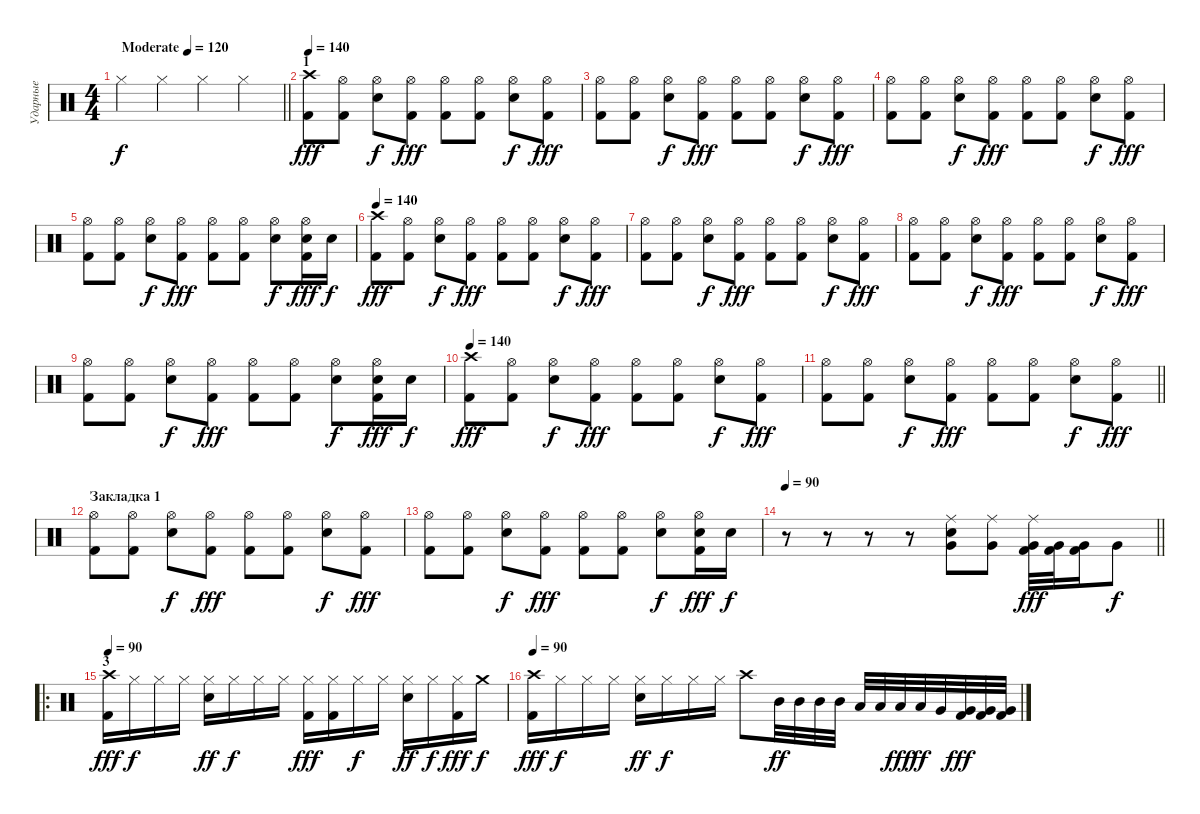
\track ("Ударные" "Ударные") {instrument percussion}
\staff {score}
\articulation defaults
\ts (4 4)
\tempo (120 "Moderate")
\clef neutral
\barLineRight lightlight
\ks c "Hi-Hat (closed)".4{dy f} "Hi-Hat (closed)".4 "Hi-Hat (closed)".4 "Hi-Hat (closed)".4
|
\section ("" "1")
\tempo 140
("Crash high (hit)" "Kick (hit) 2").8{dy fff} ("Hi-Hat (open)" "Kick (hit) 2").8 ("Hi-Hat (open)" "Snare (hit) 2").8{dy f} ("Hi-Hat (open)" "Kick (hit) 2").8{dy fff} ("Hi-Hat (open)" "Kick (hit) 2").8 ("Hi-Hat (open)" "Kick (hit) 2").8 ("Hi-Hat (open)" "Snare (hit) 2").8{dy f} ("Hi-Hat (open)" "Kick (hit) 2").8{dy fff} |
("Hi-Hat (open)" "Kick (hit) 2").8 ("Hi-Hat (open)" "Kick (hit) 2").8 ("Hi-Hat (open)" "Snare (hit) 2").8{dy f} ("Hi-Hat (open)" "Kick (hit) 2").8{dy fff} ("Hi-Hat (open)" "Kick (hit) 2").8 ("Hi-Hat (open)" "Kick (hit) 2").8 ("Hi-Hat (open)" "Snare (hit) 2").8{dy f} ("Hi-Hat (open)" "Kick (hit) 2").8{dy fff} |
("Hi-Hat (open)" "Kick (hit) 2").8 ("Hi-Hat (open)" "Kick (hit) 2").8 ("Hi-Hat (open)" "Snare (hit) 2").8{dy f} ("Hi-Hat (open)" "Kick (hit) 2").8{dy fff} ("Hi-Hat (open)" "Kick (hit) 2").8 ("Hi-Hat (open)" "Kick (hit) 2").8 ("Hi-Hat (open)" "Snare (hit) 2").8{dy f} ("Hi-Hat (open)" "Kick (hit) 2").8{dy fff} |
("Hi-Hat (open)" "Kick (hit) 2").8 ("Hi-Hat (open)" "Kick (hit) 2").8 ("Hi-Hat (open)" "Snare (hit) 2").8{dy f} ("Hi-Hat (open)" "Kick (hit) 2").8{dy fff} ("Hi-Hat (open)" "Kick (hit) 2").8 ("Hi-Hat (open)" "Kick (hit) 2").8 ("Hi-Hat (open)" "Snare (hit) 2").8{dy f} ("Hi-Hat (open)" "Snare (hit) 2" "Kick (hit) 2").16{dy fff} "Snare (hit) 2".16{dy f} |
\tempo 140
("Crash high (hit)" "Kick (hit) 2").8{dy fff} ("Hi-Hat (open)" "Kick (hit) 2").8 ("Hi-Hat (open)" "Snare (hit) 2").8{dy f} ("Hi-Hat (open)" "Kick (hit) 2").8{dy fff} ("Hi-Hat (open)" "Kick (hit) 2").8 ("Hi-Hat (open)" "Kick (hit) 2").8 ("Hi-Hat (open)" "Snare (hit) 2").8{dy f} ("Hi-Hat (open)" "Kick (hit) 2").8{dy fff} |
("Hi-Hat (open)" "Kick (hit) 2").8 ("Hi-Hat (open)" "Kick (hit) 2").8 ("Hi-Hat (open)" "Snare (hit) 2").8{dy f} ("Hi-Hat (open)" "Kick (hit) 2").8{dy fff} ("Hi-Hat (open)" "Kick (hit) 2").8 ("Hi-Hat (open)" "Kick (hit) 2").8 ("Hi-Hat (open)" "Snare (hit) 2").8{dy f} ("Hi-Hat (open)" "Kick (hit) 2").8{dy fff} |
("Hi-Hat (open)" "Kick (hit) 2").8 ("Hi-Hat (open)" "Kick (hit) 2").8 ("Hi-Hat (open)" "Snare (hit) 2").8{dy f} ("Hi-Hat (open)" "Kick (hit) 2").8{dy fff} ("Hi-Hat (open)" "Kick (hit) 2").8 ("Hi-Hat (open)" "Kick (hit) 2").8 ("Hi-Hat (open)" "Snare (hit) 2").8{dy f} ("Hi-Hat (open)" "Kick (hit) 2").8{dy fff} |
("Hi-Hat (open)" "Kick (hit) 2").8 ("Hi-Hat (open)" "Kick (hit) 2").8 ("Hi-Hat (open)" "Snare (hit) 2").8{dy f} ("Hi-Hat (open)" "Kick (hit) 2").8{dy fff} ("Hi-Hat (open)" "Kick (hit) 2").8 ("Hi-Hat (open)" "Kick (hit) 2").8 ("Hi-Hat (open)" "Snare (hit) 2").8{dy f} ("Hi-Hat (open)" "Snare (hit) 2" "Kick (hit) 2").16{dy fff} "Snare (hit) 2".16{dy f} |
\tempo 140
("Crash high (hit)" "Kick (hit) 2").8{dy fff} ("Hi-Hat (open)" "Kick (hit) 2").8 ("Hi-Hat (open)" "Snare (hit) 2").8{dy f} ("Hi-Hat (open)" "Kick (hit) 2").8{dy fff} ("Hi-Hat (open)" "Kick (hit) 2").8 ("Hi-Hat (open)" "Kick (hit) 2").8 ("Hi-Hat (open)" "Snare (hit) 2").8{dy f} ("Hi-Hat (open)" "Kick (hit) 2").8{dy fff} |
\barLineRight lightlight
("Hi-Hat (open)" "Kick (hit) 2").8 ("Hi-Hat (open)" "Kick (hit) 2").8 ("Hi-Hat (open)" "Snare (hit) 2").8{dy f} ("Hi-Hat (open)" "Kick (hit) 2").8{dy fff} ("Hi-Hat (open)" "Kick (hit) 2").8 ("Hi-Hat (open)" "Kick (hit) 2").8 ("Hi-Hat (open)" "Snare (hit) 2").8{dy f} ("Hi-Hat (open)" "Kick (hit) 2").8{dy fff} |
\section ("" "Закладка 1")
("Hi-Hat (open)" "Kick (hit) 2").8 ("Hi-Hat (open)" "Kick (hit) 2").8 ("Hi-Hat (open)" "Snare (hit) 2").8{dy f} ("Hi-Hat (open)" "Kick (hit) 2").8{dy fff} ("Hi-Hat (open)" "Kick (hit) 2").8 ("Hi-Hat (open)" "Kick (hit) 2").8 ("Hi-Hat (open)" "Snare (hit) 2").8{dy f} ("Hi-Hat (open)" "Kick (hit) 2").8{dy fff} |
("Hi-Hat (open)" "Kick (hit) 2").8 ("Hi-Hat (open)" "Kick (hit) 2").8 ("Hi-Hat (open)" "Snare (hit) 2").8{dy f} ("Hi-Hat (open)" "Kick (hit) 2").8{dy fff} ("Hi-Hat (open)" "Kick (hit) 2").8 ("Hi-Hat (open)" "Kick (hit) 2").8 ("Hi-Hat (open)" "Snare (hit) 2").8{dy f} ("Hi-Hat (open)" "Snare (hit) 2" "Kick (hit) 2").16{dy fff} "Snare (hit) 2".16{dy f} |
\tempo 90
\barLineRight lightlight
r.8 r.8 r.8 r.8 ("Very Low Tom (hit)" "Ride (middle)" "Snare (hit) 2").8 ("Very Low Tom (hit)" "Ride (middle)").8 ("Very Low Tom (hit)" "Ride (middle)" "Kick (hit) 2").32{dy fff} ("Very Low Tom (hit)" "Kick (hit) 2").32 ("Very Low Tom (hit)" "Kick (hit) 2").16 "Very Low Tom (hit)".8{dy f} |
\ro
\section ("" "3")
\tempo 90
("Crash high (hit)" "Kick (hit) 2").16{dy fff} "Hi-Hat (closed)".16{dy f} "Hi-Hat (closed)".16 "Hi-Hat (closed)".16 ("Hi-Hat (closed)" "Snare (hit) 2").16{dy ff} "Hi-Hat (closed)".16{dy f} "Hi-Hat (closed)".16 "Hi-Hat (closed)".16 ("Hi-Hat (closed)" "Kick (hit) 2").16{dy fff} ("Hi-Hat (closed)" "Kick (hit) 2").16 "Hi-Hat (closed)".16{dy f} "Hi-Hat (closed)".16 ("Hi-Hat (closed)" "Snare (hit) 2").16{dy ff} "Hi-Hat (closed)".16{dy f} ("Hi-Hat (closed)" "Kick (hit) 2").16{dy fff} "Crash medium (hit)".16{dy f} |
\tempo 90
("Crash high (hit)" "Kick (hit) 2").16{dy fff} "Hi-Hat (closed)".16{dy f} "Hi-Hat (closed)".16 "Hi-Hat (closed)".16 ("Hi-Hat (closed)" "Snare (hit) 2").16{dy ff} "Hi-Hat (closed)".16{dy f} "Hi-Hat (closed)".16 "Hi-Hat (closed)".16 "Crash high (hit)".8 "Mid Tom (hit)".32{dy ff} "Mid Tom (hit)".32 "Mid Tom (hit)".32 "Mid Tom (hit)".32 "Low Tom (hit)".32 "Low Tom (hit)".32 "Low Tom (hit)".32{dy fff} "Low Tom (hit)".32{dy ff} "Very Low Tom (hit)".32 ("Very Low Tom (hit)" "Kick (hit) 2").32{dy fff} ("Very Low Tom (hit)" "Kick (hit) 2").32 ("Very Low Tom (hit)" "Kick (hit) 2").32
